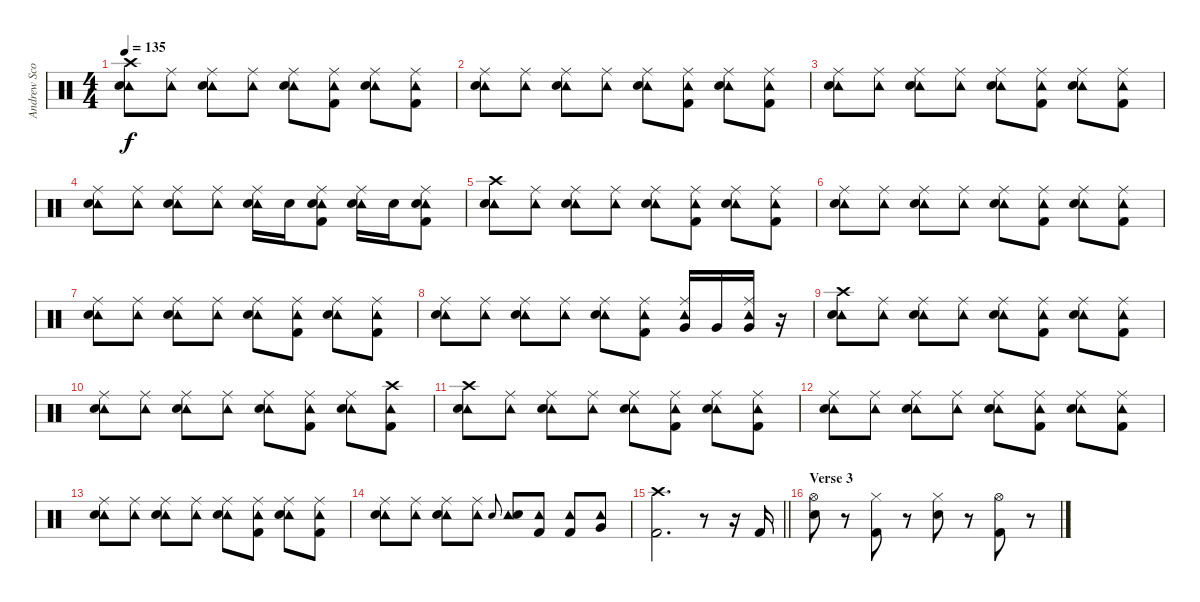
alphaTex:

\track ("Andrew Scott" "Andrew Sco") {instrument percussion}
\staff {score}
\articulation defaults
\ts (4 4)
\tempo 135
\clef neutral
\ks c
("Crash high (hit)" "Tambourine (hit)" "Snare (hit) 2").8{dy f} ("Ride (middle)" "Tambourine (hit)").8 ("Ride (middle)" "Tambourine (hit)" "Snare (hit) 2").8 ("Ride (middle)" "Tambourine (hit)").8 ("Ride (middle)" "Tambourine (hit)" "Snare (hit) 2").8 ("Ride (middle)" "Tambourine (hit)" "Kick (hit) 2").8 ("Ride (middle)" "Tambourine (hit)" "Snare (hit) 2").8 ("Ride (middle)" "Tambourine (hit)" "Kick (hit) 2").8 |
("Ride (middle)" "Tambourine (hit)" "Snare (hit) 2").8 ("Ride (middle)" "Tambourine (hit)").8 ("Ride (middle)" "Tambourine (hit)" "Snare (hit) 2").8 ("Ride (middle)" "Tambourine (hit)").8 ("Ride (middle)" "Tambourine (hit)" "Snare (hit) 2").8 ("Ride (middle)" "Tambourine (hit)" "Kick (hit) 2").8 ("Ride (middle)" "Tambourine (hit)" "Snare (hit) 2").8 ("Ride (middle)" "Tambourine (hit)" "Kick (hit) 2").8 |
("Ride (middle)" "Tambourine (hit)" "Snare (hit) 2").8 ("Ride (middle)" "Tambourine (hit)").8 ("Ride (middle)" "Tambourine (hit)" "Snare (hit) 2").8 ("Ride (middle)" "Tambourine (hit)").8 ("Ride (middle)" "Tambourine (hit)" "Snare (hit) 2").8 ("Ride (middle)" "Tambourine (hit)" "Kick (hit) 2").8 ("Ride (middle)" "Tambourine (hit)" "Snare (hit) 2").8 ("Ride (middle)" "Tambourine (hit)" "Kick (hit) 2").8 |
("Ride (middle)" "Tambourine (hit)" "Snare (hit) 2").8 ("Ride (middle)" "Tambourine (hit)").8 ("Ride (middle)" "Tambourine (hit)" "Snare (hit) 2").8 ("Ride (middle)" "Tambourine (hit)").8 ("Ride (middle)" "Tambourine (hit)" "Snare (hit) 2").16 "Snare (hit) 2".16 ("Ride (middle)" "Tambourine (hit)" "Snare (hit) 2" "Kick (hit) 2").8 ("Ride (middle)" "Tambourine (hit)" "Snare (hit) 2").16 "Snare (hit) 2".16 ("Ride (middle)" "Tambourine (hit)" "Snare (hit) 2" "Kick (hit) 2").8 |
("Crash high (hit)" "Tambourine (hit)" "Snare (hit) 2").8 ("Ride (middle)" "Tambourine (hit)").8 ("Ride (middle)" "Tambourine (hit)" "Snare (hit) 2").8 ("Ride (middle)" "Tambourine (hit)").8 ("Ride (middle)" "Tambourine (hit)" "Snare (hit) 2").8 ("Ride (middle)" "Tambourine (hit)" "Kick (hit) 2").8 ("Ride (middle)" "Tambourine (hit)" "Snare (hit) 2").8 ("Ride (middle)" "Tambourine (hit)" "Kick (hit) 2").8 |
("Ride (middle)" "Tambourine (hit)" "Snare (hit) 2").8 ("Ride (middle)" "Tambourine (hit)").8 ("Ride (middle)" "Tambourine (hit)" "Snare (hit) 2").8 ("Ride (middle)" "Tambourine (hit)").8 ("Ride (middle)" "Tambourine (hit)" "Snare (hit) 2").8 ("Ride (middle)" "Tambourine (hit)" "Kick (hit) 2").8 ("Ride (middle)" "Tambourine (hit)" "Snare (hit) 2").8 ("Ride (middle)" "Tambourine (hit)" "Kick (hit) 2").8 |
("Ride (middle)" "Tambourine (hit)" "Snare (hit) 2").8 ("Ride (middle)" "Tambourine (hit)").8 ("Ride (middle)" "Tambourine (hit)" "Snare (hit) 2").8 ("Ride (middle)" "Tambourine (hit)").8 ("Ride (middle)" "Tambourine (hit)" "Snare (hit) 2").8 ("Ride (middle)" "Tambourine (hit)" "Kick (hit) 2").8 ("Ride (middle)" "Tambourine (hit)" "Snare (hit) 2").8 ("Ride (middle)" "Tambourine (hit)" "Kick (hit) 2").8 |
("Ride (middle)" "Tambourine (hit)" "Snare (hit) 2").8 ("Ride (middle)" "Tambourine (hit)").8 ("Ride (middle)" "Tambourine (hit)" "Snare (hit) 2").8 ("Ride (middle)" "Tambourine (hit)").8 ("Ride (middle)" "Tambourine (hit)" "Snare (hit) 2").8 ("Ride (middle)" "Tambourine (hit)" "Kick (hit) 2").8 ("Ride (middle)" "Tambourine (hit)" "Very Low Tom (hit)").16 "Very Low Tom (hit)".16 ("Ride (middle)" "Tambourine (hit)" "Very Low Tom (hit)").16 r.16 |
("Crash high (hit)" "Tambourine (hit)" "Snare (hit) 2").8 ("Ride (middle)" "Tambourine (hit)").8 ("Ride (middle)" "Tambourine (hit)" "Snare (hit) 2").8 ("Ride (middle)" "Tambourine (hit)").8 ("Ride (middle)" "Tambourine (hit)" "Snare (hit) 2").8 ("Ride (middle)" "Tambourine (hit)" "Kick (hit) 2").8 ("Ride (middle)" "Tambourine (hit)" "Snare (hit) 2").8 ("Ride (middle)" "Tambourine (hit)" "Kick (hit) 2").8 |
("Ride (middle)" "Tambourine (hit)" "Snare (hit) 2").8 ("Ride (middle)" "Tambourine (hit)").8 ("Ride (middle)" "Tambourine (hit)" "Snare (hit) 2").8 ("Ride (middle)" "Tambourine (hit)").8 ("Ride (middle)" "Tambourine (hit)" "Snare (hit) 2").8 ("Ride (middle)" "Tambourine (hit)" "Kick (hit) 2").8 ("Ride (middle)" "Tambourine (hit)" "Snare (hit) 2").8 ("Crash high (hit)" "Tambourine (hit)" "Kick (hit) 2").8 |
("Crash high (hit)" "Tambourine (hit)" "Snare (hit) 2").8 ("Ride (middle)" "Tambourine (hit)").8 ("Ride (middle)" "Tambourine (hit)" "Snare (hit) 2").8 ("Ride (middle)" "Tambourine (hit)").8 ("Ride (middle)" "Tambourine (hit)" "Snare (hit) 2").8 ("Ride (middle)" "Tambourine (hit)" "Kick (hit) 2").8 ("Ride (middle)" "Tambourine (hit)" "Snare (hit) 2").8 ("Ride (middle)" "Tambourine (hit)" "Kick (hit) 2").8 |
("Ride (middle)" "Tambourine (hit)" "Snare (hit) 2").8 ("Ride (middle)" "Tambourine (hit)").8 ("Ride (middle)" "Tambourine (hit)" "Snare (hit) 2").8 ("Ride (middle)" "Tambourine (hit)").8 ("Ride (middle)" "Tambourine (hit)" "Snare (hit) 2").8 ("Ride (middle)" "Tambourine (hit)" "Kick (hit) 2").8 ("Ride (middle)" "Tambourine (hit)" "Snare (hit) 2").8 ("Ride (middle)" "Tambourine (hit)" "Kick (hit) 2").8 |
("Ride (middle)" "Tambourine (hit)" "Snare (hit) 2").8 ("Ride (middle)" "Tambourine (hit)").8 ("Ride (middle)" "Tambourine (hit)" "Snare (hit) 2").8 ("Ride (middle)" "Tambourine (hit)").8 ("Ride (middle)" "Tambourine (hit)" "Snare (hit) 2").8 ("Ride (middle)" "Tambourine (hit)" "Kick (hit) 2").8 ("Ride (middle)" "Tambourine (hit)" "Snare (hit) 2").8 ("Ride (middle)" "Tambourine (hit)" "Kick (hit) 2").8 |
("Ride (middle)" "Tambourine (hit)" "Snare (hit) 2").8 ("Ride (middle)" "Tambourine (hit)").8 ("Ride (middle)" "Tambourine (hit)" "Snare (hit) 2").8 ("Ride (middle)" "Tambourine (hit)").8 "Snare (hit) 2".8{gr onbeat} ("Tambourine (hit)" "Snare (hit) 2").8 ("Tambourine (hit)" "Kick (hit) 2").8 ("Tambourine (hit)" "Kick (hit) 2").8 ("Tambourine (hit)" "Very Low Tom (hit)").8 |
\barLineRight lightlight
("Crash high (hit)" "Kick (hit) 2").2{d} r.8 r.16 "Kick (hit) 2".16 |
\section ("" "Verse 3")
("Hi-Hat (open)" "Snare (hit) 2").8 r.8 ("Hi-Hat (closed)" "Kick (hit) 2").8 r.8 ("Hi-Hat (closed)" "Snare (hit) 2").8 r.8 ("Hi-Hat (open)" "Kick (hit) 2").8 r.8
